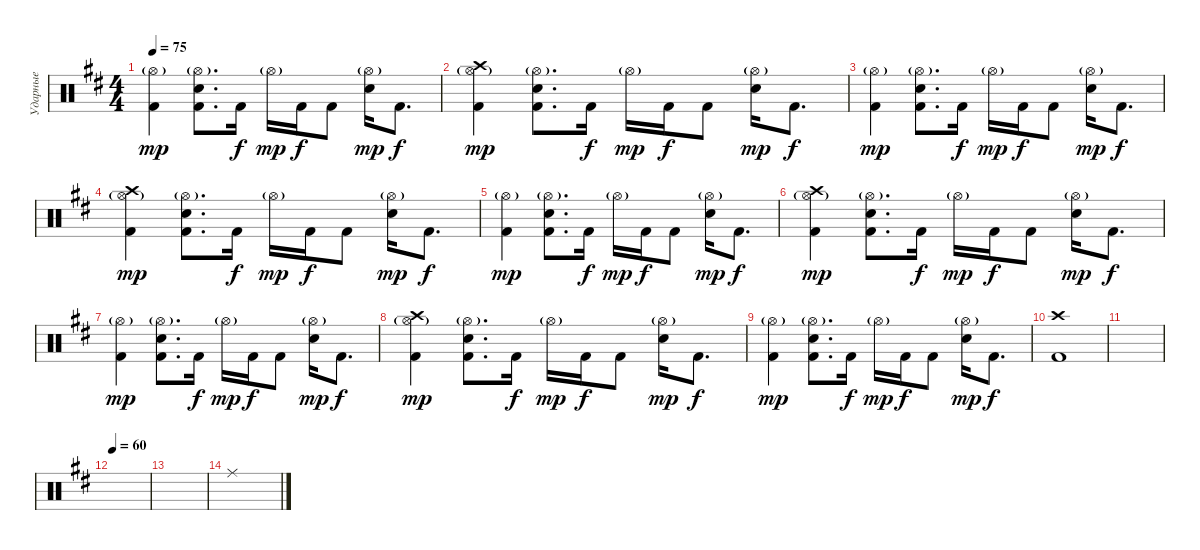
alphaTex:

\track ("Ударные" "Ударные") {instrument percussion}
\staff {score}
\articulation defaults
\ts (4 4)
\tempo 75
\clef neutral
\ks bminor
("Hi-Hat (open)"{g} "Kick (hit) 2").4{dy mp} ("Hi-Hat (open)"{g} "Electric Snare (hit)" "Kick (hit) 2").8{d} "Kick (hit) 2".16{dy f} "Hi-Hat (open)"{g}.16{dy mp} "Kick (hit) 2".16{dy f} "Kick (hit) 2".8 ("Hi-Hat (open)"{g} "Electric Snare (hit)").16{dy mp} "Kick (hit) 2".8{d dy f} |
("Crash high (hit)" "Hi-Hat (open)"{g} "Kick (hit) 2").4{dy mp} ("Hi-Hat (open)"{g} "Electric Snare (hit)" "Kick (hit) 2").8{d} "Kick (hit) 2".16{dy f} "Hi-Hat (open)"{g}.16{dy mp} "Kick (hit) 2".16{dy f} "Kick (hit) 2".8 ("Hi-Hat (open)"{g} "Electric Snare (hit)").16{dy mp} "Kick (hit) 2".8{d dy f} |
("Hi-Hat (open)"{g} "Kick (hit) 2").4{dy mp} ("Hi-Hat (open)"{g} "Electric Snare (hit)" "Kick (hit) 2").8{d} "Kick (hit) 2".16{dy f} "Hi-Hat (open)"{g}.16{dy mp} "Kick (hit) 2".16{dy f} "Kick (hit) 2".8 ("Hi-Hat (open)"{g} "Electric Snare (hit)").16{dy mp} "Kick (hit) 2".8{d dy f} |
("Crash high (hit)" "Hi-Hat (open)"{g} "Kick (hit) 2").4{dy mp} ("Hi-Hat (open)"{g} "Electric Snare (hit)" "Kick (hit) 2").8{d} "Kick (hit) 2".16{dy f} "Hi-Hat (open)"{g}.16{dy mp} "Kick (hit) 2".16{dy f} "Kick (hit) 2".8 ("Hi-Hat (open)"{g} "Electric Snare (hit)").16{dy mp} "Kick (hit) 2".8{d dy f} |
("Hi-Hat (open)"{g} "Kick (hit) 2").4{dy mp} ("Hi-Hat (open)"{g} "Electric Snare (hit)" "Kick (hit) 2").8{d} "Kick (hit) 2".16{dy f} "Hi-Hat (open)"{g}.16{dy mp} "Kick (hit) 2".16{dy f} "Kick (hit) 2".8 ("Hi-Hat (open)"{g} "Electric Snare (hit)").16{dy mp} "Kick (hit) 2".8{d dy f} |
("Crash high (hit)" "Hi-Hat (open)"{g} "Kick (hit) 2").4{dy mp} ("Hi-Hat (open)"{g} "Electric Snare (hit)" "Kick (hit) 2").8{d} "Kick (hit) 2".16{dy f} "Hi-Hat (open)"{g}.16{dy mp} "Kick (hit) 2".16{dy f} "Kick (hit) 2".8 ("Hi-Hat (open)"{g} "Electric Snare (hit)").16{dy mp} "Kick (hit) 2".8{d dy f} |
("Hi-Hat (open)"{g} "Kick (hit) 2").4{dy mp} ("Hi-Hat (open)"{g} "Electric Snare (hit)" "Kick (hit) 2").8{d} "Kick (hit) 2".16{dy f} "Hi-Hat (open)"{g}.16{dy mp} "Kick (hit) 2".16{dy f} "Kick (hit) 2".8 ("Hi-Hat (open)"{g} "Electric Snare (hit)").16{dy mp} "Kick (hit) 2".8{d dy f} |
("Crash high (hit)" "Hi-Hat (open)"{g} "Kick (hit) 2").4{dy mp} ("Hi-Hat (open)"{g} "Electric Snare (hit)" "Kick (hit) 2").8{d} "Kick (hit) 2".16{dy f} "Hi-Hat (open)"{g}.16{dy mp} "Kick (hit) 2".16{dy f} "Kick (hit) 2".8 ("Hi-Hat (open)"{g} "Electric Snare (hit)").16{dy mp} "Kick (hit) 2".8{d dy f} |
("Hi-Hat (open)"{g} "Kick (hit) 2").4{dy mp} ("Hi-Hat (open)"{g} "Electric Snare (hit)" "Kick (hit) 2").8{d} "Kick (hit) 2".16{dy f} "Hi-Hat (open)"{g}.16{dy mp} "Kick (hit) 2".16{dy f} "Kick (hit) 2".8 ("Hi-Hat (open)"{g} "Electric Snare (hit)").16{dy mp} "Kick (hit) 2".8{d dy f} |
("Crash high (hit)" "Kick (hit) 2").1 |
|
\tempo 60
|
|
"Ride (middle)".1
